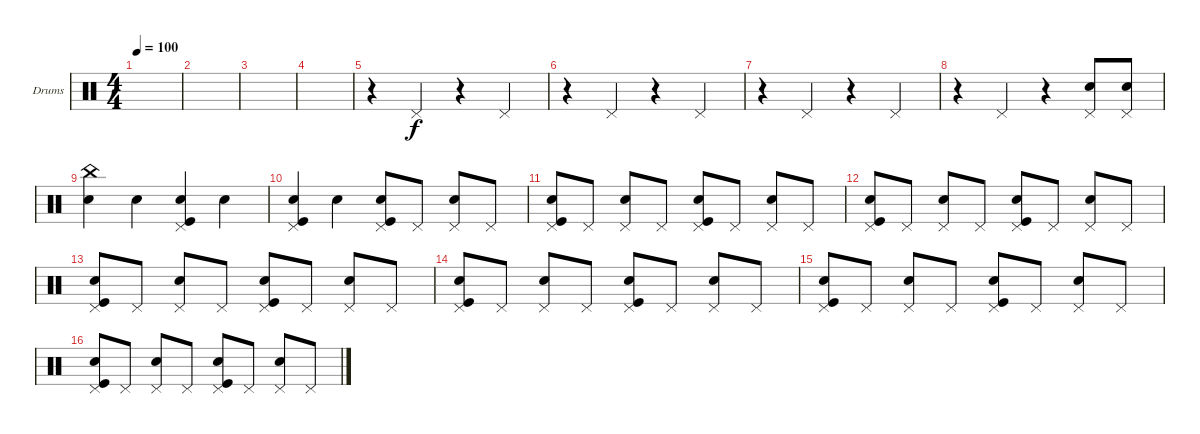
\defaultSystemsLayout 4
\bracketExtendMode groupsimilarinstruments
\firstSystemTrackNameOrientation horizontal
\otherSystemsTrackNameOrientation horizontal
\track ("Drumkit" "Drums") {instrument percussion}
\staff {score}
\articulation defaults
\ts (4 4)
\tempo 100
\clef neutral
\scale
0.474178
\ks c
|
\scale
0.262911 |
\scale
0.262911 |
\scale
0.333333 |
\scale
0.333333 r.4 "Pedal Hi-Hat (hit)".4 r.4 "Pedal Hi-Hat (hit)".4 |
\scale
0.333333 r.4 "Pedal Hi-Hat (hit)".4 r.4 "Pedal Hi-Hat (hit)".4 |
\scale
0.333333 r.4 "Pedal Hi-Hat (hit)".4 r.4 "Pedal Hi-Hat (hit)".4 |
\scale
0.333333 r.4 "Pedal Hi-Hat (hit)".4 r.4 ("Snare (hit) 2" "Pedal Hi-Hat (hit)").8 ("Snare (hit) 2" "Pedal Hi-Hat (hit)").8 |
("China (hit)" "Snare (hit) 2").4 "Snare (hit) 2".4 ("Snare (hit) 2" "Kick (hit)" "Pedal Hi-Hat (hit)").4 "Snare (hit) 2".4 |
("Snare (hit) 2" "Kick (hit)" "Pedal Hi-Hat (hit)").4 "Snare (hit) 2".4 ("Snare (hit) 2" "Kick (hit)" "Pedal Hi-Hat (hit)").8 "Pedal Hi-Hat (hit)".8 ("Snare (hit) 2" "Pedal Hi-Hat (hit)").8 "Pedal Hi-Hat (hit)".8 |
\scale
0.333333 ("Snare (hit) 2" "Kick (hit)" "Pedal Hi-Hat (hit)").8 "Pedal Hi-Hat (hit)".8 ("Snare (hit) 2" "Pedal Hi-Hat (hit)").8 "Pedal Hi-Hat (hit)".8 ("Snare (hit) 2" "Kick (hit)" "Pedal Hi-Hat (hit)").8 "Pedal Hi-Hat (hit)".8 ("Snare (hit) 2" "Pedal Hi-Hat (hit)").8 "Pedal Hi-Hat (hit)".8 |
("Snare (hit) 2" "Kick (hit)" "Pedal Hi-Hat (hit)").8 "Pedal Hi-Hat (hit)".8 ("Snare (hit) 2" "Pedal Hi-Hat (hit)").8 "Pedal Hi-Hat (hit)".8 ("Snare (hit) 2" "Kick (hit)" "Pedal Hi-Hat (hit)").8 "Pedal Hi-Hat (hit)".8 ("Snare (hit) 2" "Pedal Hi-Hat (hit)").8 "Pedal Hi-Hat (hit)".8 |
\scale
0.333333 ("Snare (hit) 2" "Kick (hit)" "Pedal Hi-Hat (hit)").8 "Pedal Hi-Hat (hit)".8 ("Snare (hit) 2" "Pedal Hi-Hat (hit)").8 "Pedal Hi-Hat (hit)".8 ("Snare (hit) 2" "Kick (hit)" "Pedal Hi-Hat (hit)").8 "Pedal Hi-Hat (hit)".8 ("Snare (hit) 2" "Pedal Hi-Hat (hit)").8 "Pedal Hi-Hat (hit)".8 |
("Snare (hit) 2" "Kick (hit)" "Pedal Hi-Hat (hit)").8 "Pedal Hi-Hat (hit)".8 ("Snare (hit) 2" "Pedal Hi-Hat (hit)").8 "Pedal Hi-Hat (hit)".8 ("Snare (hit) 2" "Kick (hit)" "Pedal Hi-Hat (hit)").8 "Pedal Hi-Hat (hit)".8 ("Snare (hit) 2" "Pedal Hi-Hat (hit)").8 "Pedal Hi-Hat (hit)".8 |
\scale
0.333333 ("Snare (hit) 2" "Kick (hit)" "Pedal Hi-Hat (hit)").8 "Pedal Hi-Hat (hit)".8 ("Snare (hit) 2" "Pedal Hi-Hat (hit)").8 "Pedal Hi-Hat (hit)".8 ("Snare (hit) 2" "Kick (hit)" "Pedal Hi-Hat (hit)").8 "Pedal Hi-Hat (hit)".8 ("Snare (hit) 2" "Pedal Hi-Hat (hit)").8 "Pedal Hi-Hat (hit)".8 |
("Snare (hit) 2" "Kick (hit)" "Pedal Hi-Hat (hit)").8 "Pedal Hi-Hat (hit)".8 ("Snare (hit) 2" "Pedal Hi-Hat (hit)").8 "Pedal Hi-Hat (hit)".8 ("Snare (hit) 2" "Kick (hit)" "Pedal Hi-Hat (hit)").8 "Pedal Hi-Hat (hit)".8 ("Snare (hit) 2" "Pedal Hi-Hat (hit)").8 "Pedal Hi-Hat (hit)".8
